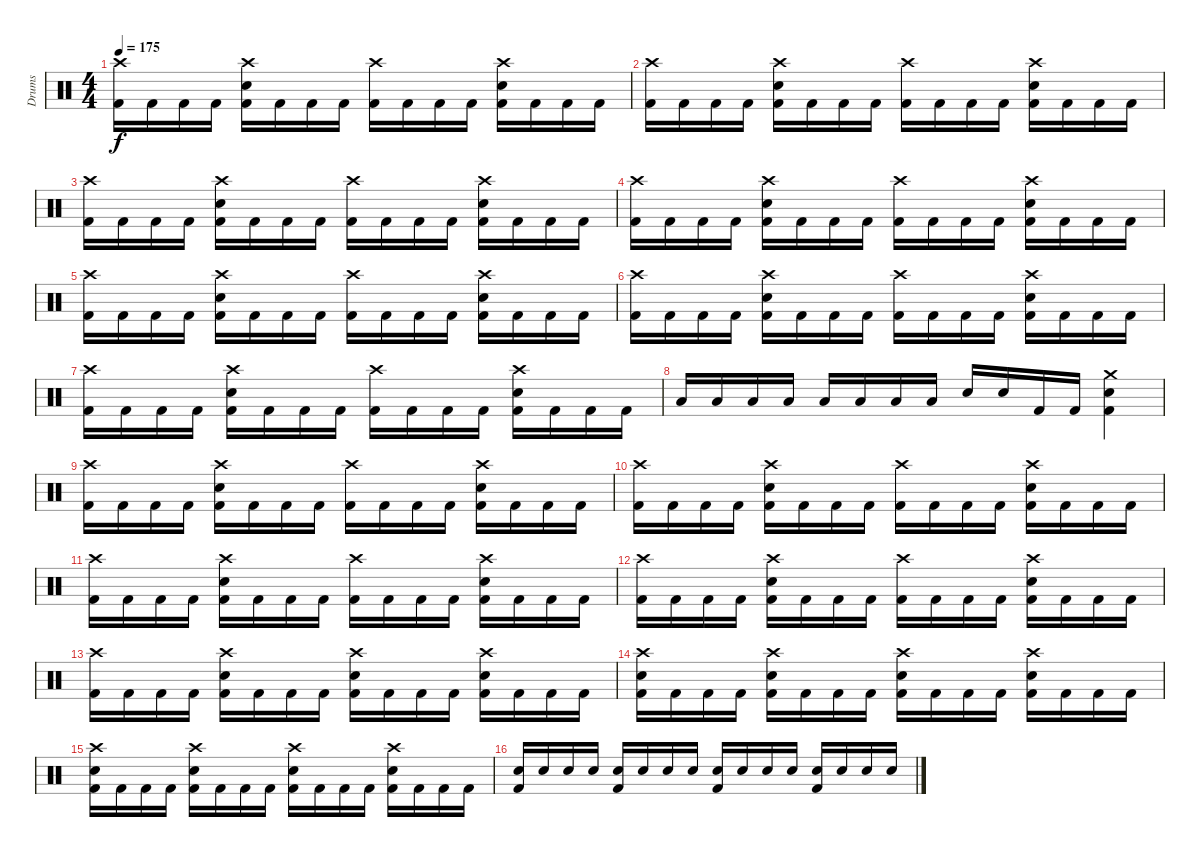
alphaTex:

\track ("Drums" "Drums") {instrument percussion}
\staff {score}
\articulation defaults
\ts (4 4)
\tempo 175
\clef neutral
\ks c
("Crash high (hit)" "Kick (hit) 2").16{dy f} "Kick (hit) 2".16 "Kick (hit) 2".16 "Kick (hit) 2".16 ("Crash high (hit)" "Snare (hit) 2" "Kick (hit) 2").16 "Kick (hit) 2".16 "Kick (hit) 2".16 "Kick (hit) 2".16 ("Crash high (hit)" "Kick (hit) 2").16 "Kick (hit) 2".16 "Kick (hit) 2".16 "Kick (hit) 2".16 ("Crash high (hit)" "Snare (hit) 2" "Kick (hit) 2").16 "Kick (hit) 2".16 "Kick (hit) 2".16 "Kick (hit) 2".16 |
("Crash high (hit)" "Kick (hit) 2").16 "Kick (hit) 2".16 "Kick (hit) 2".16 "Kick (hit) 2".16 ("Crash high (hit)" "Snare (hit) 2" "Kick (hit) 2").16 "Kick (hit) 2".16 "Kick (hit) 2".16 "Kick (hit) 2".16 ("Crash high (hit)" "Kick (hit) 2").16 "Kick (hit) 2".16 "Kick (hit) 2".16 "Kick (hit) 2".16 ("Crash high (hit)" "Snare (hit) 2" "Kick (hit) 2").16 "Kick (hit) 2".16 "Kick (hit) 2".16 "Kick (hit) 2".16 |
("Crash high (hit)" "Kick (hit) 2").16 "Kick (hit) 2".16 "Kick (hit) 2".16 "Kick (hit) 2".16 ("Crash high (hit)" "Snare (hit) 2" "Kick (hit) 2").16 "Kick (hit) 2".16 "Kick (hit) 2".16 "Kick (hit) 2".16 ("Crash high (hit)" "Kick (hit) 2").16 "Kick (hit) 2".16 "Kick (hit) 2".16 "Kick (hit) 2".16 ("Crash high (hit)" "Snare (hit) 2" "Kick (hit) 2").16 "Kick (hit) 2".16 "Kick (hit) 2".16 "Kick (hit) 2".16 |
("Crash high (hit)" "Kick (hit) 2").16 "Kick (hit) 2".16 "Kick (hit) 2".16 "Kick (hit) 2".16 ("Crash high (hit)" "Snare (hit) 2" "Kick (hit) 2").16 "Kick (hit) 2".16 "Kick (hit) 2".16 "Kick (hit) 2".16 ("Crash high (hit)" "Kick (hit) 2").16 "Kick (hit) 2".16 "Kick (hit) 2".16 "Kick (hit) 2".16 ("Crash high (hit)" "Snare (hit) 2" "Kick (hit) 2").16 "Kick (hit) 2".16 "Kick (hit) 2".16 "Kick (hit) 2".16 |
("Crash high (hit)" "Kick (hit) 2").16 "Kick (hit) 2".16 "Kick (hit) 2".16 "Kick (hit) 2".16 ("Crash high (hit)" "Snare (hit) 2" "Kick (hit) 2").16 "Kick (hit) 2".16 "Kick (hit) 2".16 "Kick (hit) 2".16 ("Crash high (hit)" "Kick (hit) 2").16 "Kick (hit) 2".16 "Kick (hit) 2".16 "Kick (hit) 2".16 ("Crash high (hit)" "Snare (hit) 2" "Kick (hit) 2").16 "Kick (hit) 2".16 "Kick (hit) 2".16 "Kick (hit) 2".16 |
("Crash high (hit)" "Kick (hit) 2").16 "Kick (hit) 2".16 "Kick (hit) 2".16 "Kick (hit) 2".16 ("Crash high (hit)" "Snare (hit) 2" "Kick (hit) 2").16 "Kick (hit) 2".16 "Kick (hit) 2".16 "Kick (hit) 2".16 ("Crash high (hit)" "Kick (hit) 2").16 "Kick (hit) 2".16 "Kick (hit) 2".16 "Kick (hit) 2".16 ("Crash high (hit)" "Snare (hit) 2" "Kick (hit) 2").16 "Kick (hit) 2".16 "Kick (hit) 2".16 "Kick (hit) 2".16 |
("Crash high (hit)" "Kick (hit) 2").16 "Kick (hit) 2".16 "Kick (hit) 2".16 "Kick (hit) 2".16 ("Crash high (hit)" "Snare (hit) 2" "Kick (hit) 2").16 "Kick (hit) 2".16 "Kick (hit) 2".16 "Kick (hit) 2".16 ("Crash high (hit)" "Kick (hit) 2").16 "Kick (hit) 2".16 "Kick (hit) 2".16 "Kick (hit) 2".16 ("Crash high (hit)" "Snare (hit) 2" "Kick (hit) 2").16 "Kick (hit) 2".16 "Kick (hit) 2".16 "Kick (hit) 2".16 |
"Low Tom (hit)".16 "Low Tom (hit)".16 "Low Tom (hit)".16 "Low Tom (hit)".16 "Low Tom (hit)".16 "Low Tom (hit)".16 "Low Tom (hit)".16 "Low Tom (hit)".16 "Snare (hit) 2".16 "Snare (hit) 2".16 "Kick (hit) 2".16 "Kick (hit) 2".16 ("Crash medium (hit)" "Kick (hit) 2" "Snare (hit) 2").4 |
("Crash high (hit)" "Kick (hit) 2").16 "Kick (hit) 2".16 "Kick (hit) 2".16 "Kick (hit) 2".16 ("Crash high (hit)" "Snare (hit) 2" "Kick (hit) 2").16 "Kick (hit) 2".16 "Kick (hit) 2".16 "Kick (hit) 2".16 ("Crash high (hit)" "Kick (hit) 2").16 "Kick (hit) 2".16 "Kick (hit) 2".16 "Kick (hit) 2".16 ("Crash high (hit)" "Snare (hit) 2" "Kick (hit) 2").16 "Kick (hit) 2".16 "Kick (hit) 2".16 "Kick (hit) 2".16 |
("Crash high (hit)" "Kick (hit) 2").16 "Kick (hit) 2".16 "Kick (hit) 2".16 "Kick (hit) 2".16 ("Crash high (hit)" "Snare (hit) 2" "Kick (hit) 2").16 "Kick (hit) 2".16 "Kick (hit) 2".16 "Kick (hit) 2".16 ("Crash high (hit)" "Kick (hit) 2").16 "Kick (hit) 2".16 "Kick (hit) 2".16 "Kick (hit) 2".16 ("Crash high (hit)" "Snare (hit) 2" "Kick (hit) 2").16 "Kick (hit) 2".16 "Kick (hit) 2".16 "Kick (hit) 2".16 |
("Crash high (hit)" "Kick (hit) 2").16 "Kick (hit) 2".16 "Kick (hit) 2".16 "Kick (hit) 2".16 ("Crash high (hit)" "Snare (hit) 2" "Kick (hit) 2").16 "Kick (hit) 2".16 "Kick (hit) 2".16 "Kick (hit) 2".16 ("Crash high (hit)" "Kick (hit) 2").16 "Kick (hit) 2".16 "Kick (hit) 2".16 "Kick (hit) 2".16 ("Crash high (hit)" "Snare (hit) 2" "Kick (hit) 2").16 "Kick (hit) 2".16 "Kick (hit) 2".16 "Kick (hit) 2".16 |
("Crash high (hit)" "Kick (hit) 2").16 "Kick (hit) 2".16 "Kick (hit) 2".16 "Kick (hit) 2".16 ("Crash high (hit)" "Snare (hit) 2" "Kick (hit) 2").16 "Kick (hit) 2".16 "Kick (hit) 2".16 "Kick (hit) 2".16 ("Crash high (hit)" "Kick (hit) 2").16 "Kick (hit) 2".16 "Kick (hit) 2".16 "Kick (hit) 2".16 ("Crash high (hit)" "Snare (hit) 2" "Kick (hit) 2").16 "Kick (hit) 2".16 "Kick (hit) 2".16 "Kick (hit) 2".16 |
("Crash high (hit)" "Kick (hit) 2").16 "Kick (hit) 2".16 "Kick (hit) 2".16 "Kick (hit) 2".16 ("Crash high (hit)" "Snare (hit) 2" "Kick (hit) 2").16 "Kick (hit) 2".16 "Kick (hit) 2".16 "Kick (hit) 2".16 ("Crash high (hit)" "Snare (hit) 2" "Kick (hit) 2").16 "Kick (hit) 2".16 "Kick (hit) 2".16 "Kick (hit) 2".16 ("Crash high (hit)" "Snare (hit) 2" "Kick (hit) 2").16 "Kick (hit) 2".16 "Kick (hit) 2".16 "Kick (hit) 2".16 |
("Crash high (hit)" "Snare (hit) 2" "Kick (hit) 2").16 "Kick (hit) 2".16 "Kick (hit) 2".16 "Kick (hit) 2".16 ("Crash high (hit)" "Snare (hit) 2" "Kick (hit) 2").16 "Kick (hit) 2".16 "Kick (hit) 2".16 "Kick (hit) 2".16 ("Crash high (hit)" "Snare (hit) 2" "Kick (hit) 2").16 "Kick (hit) 2".16 "Kick (hit) 2".16 "Kick (hit) 2".16 ("Crash high (hit)" "Snare (hit) 2" "Kick (hit) 2").16 "Kick (hit) 2".16 "Kick (hit) 2".16 "Kick (hit) 2".16 |
("Crash high (hit)" "Snare (hit) 2" "Kick (hit) 2").16 "Kick (hit) 2".16 "Kick (hit) 2".16 "Kick (hit) 2".16 ("Crash high (hit)" "Snare (hit) 2" "Kick (hit) 2").16 "Kick (hit) 2".16 "Kick (hit) 2".16 "Kick (hit) 2".16 ("Crash high (hit)" "Snare (hit) 2" "Kick (hit) 2").16 "Kick (hit) 2".16 "Kick (hit) 2".16 "Kick (hit) 2".16 ("Crash high (hit)" "Snare (hit) 2" "Kick (hit) 2").16 "Kick (hit) 2".16 "Kick (hit) 2".16 "Kick (hit) 2".16 |
("Kick (hit) 2" "Snare (hit) 2").16 "Snare (hit) 2".16 "Snare (hit) 2".16 "Snare (hit) 2".16 ("Kick (hit) 2" "Snare (hit) 2").16 "Snare (hit) 2".16 "Snare (hit) 2".16 "Snare (hit) 2".16 ("Kick (hit) 2" "Snare (hit) 2").16 "Snare (hit) 2".16 "Snare (hit) 2".16 "Snare (hit) 2".16 ("Kick (hit) 2" "Snare (hit) 2").16 "Snare (hit) 2".16 "Snare (hit) 2".16 "Snare (hit) 2".16
